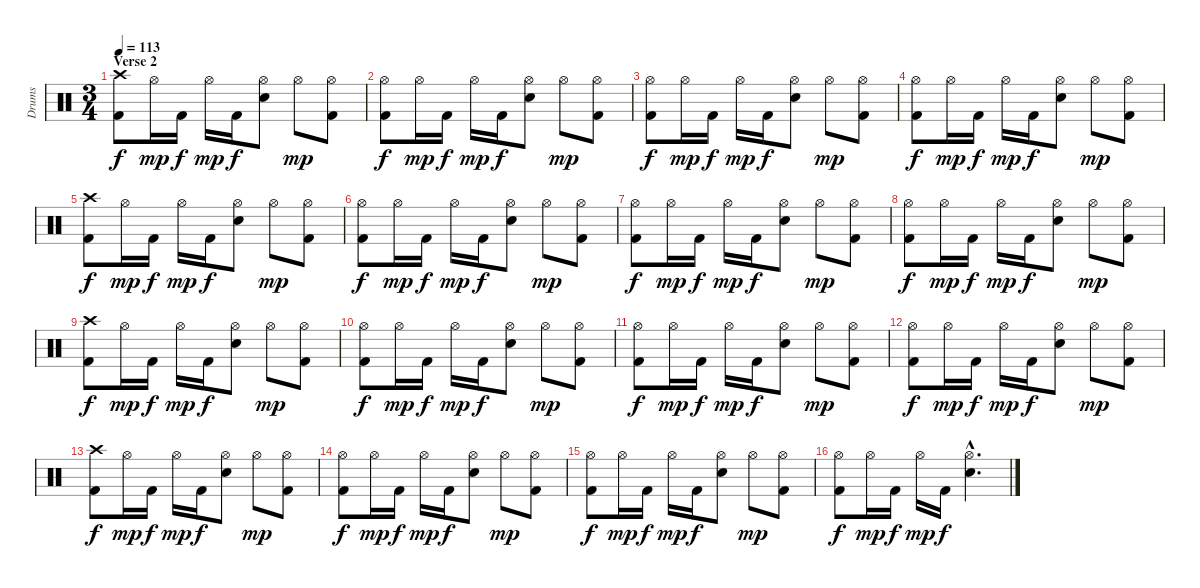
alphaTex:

\track ("Drums" "Drums") {instrument percussion}
\staff {score}
\articulation defaults
\ts (3 4)
\section ("" "Verse 2")
\tempo 113
\clef neutral
\ks c
("Crash high (hit)" "Kick (hit) 2").8{dy f} "Hi-Hat (open)".16{dy mp} "Kick (hit) 2".16{dy f} "Hi-Hat (open)".16{dy mp} "Kick (hit) 2".16{dy f} ("Hi-Hat (open)" "Snare (hit) 2").8 "Hi-Hat (open)".8{dy mp} ("Hi-Hat (open)" "Kick (hit) 2").8 |
("Hi-Hat (open)" "Kick (hit) 2").8{dy f} "Hi-Hat (open)".16{dy mp} "Kick (hit) 2".16{dy f} "Hi-Hat (open)".16{dy mp} "Kick (hit) 2".16{dy f} ("Hi-Hat (open)" "Snare (hit) 2").8 "Hi-Hat (open)".8{dy mp} ("Hi-Hat (open)" "Kick (hit) 2").8 |
("Hi-Hat (open)" "Kick (hit) 2").8{dy f} "Hi-Hat (open)".16{dy mp} "Kick (hit) 2".16{dy f} "Hi-Hat (open)".16{dy mp} "Kick (hit) 2".16{dy f} ("Hi-Hat (open)" "Snare (hit) 2").8 "Hi-Hat (open)".8{dy mp} ("Hi-Hat (open)" "Kick (hit) 2").8 |
("Hi-Hat (open)" "Kick (hit) 2").8{dy f} "Hi-Hat (open)".16{dy mp} "Kick (hit) 2".16{dy f} "Hi-Hat (open)".16{dy mp} "Kick (hit) 2".16{dy f} ("Hi-Hat (open)" "Snare (hit) 2").8 "Hi-Hat (open)".8{dy mp} ("Hi-Hat (open)" "Kick (hit) 2").8 |
("Crash high (hit)" "Kick (hit) 2").8{dy f} "Hi-Hat (open)".16{dy mp} "Kick (hit) 2".16{dy f} "Hi-Hat (open)".16{dy mp} "Kick (hit) 2".16{dy f} ("Hi-Hat (open)" "Snare (hit) 2").8 "Hi-Hat (open)".8{dy mp} ("Hi-Hat (open)" "Kick (hit) 2").8 |
("Hi-Hat (open)" "Kick (hit) 2").8{dy f} "Hi-Hat (open)".16{dy mp} "Kick (hit) 2".16{dy f} "Hi-Hat (open)".16{dy mp} "Kick (hit) 2".16{dy f} ("Hi-Hat (open)" "Snare (hit) 2").8 "Hi-Hat (open)".8{dy mp} ("Hi-Hat (open)" "Kick (hit) 2").8 |
("Hi-Hat (open)" "Kick (hit) 2").8{dy f} "Hi-Hat (open)".16{dy mp} "Kick (hit) 2".16{dy f} "Hi-Hat (open)".16{dy mp} "Kick (hit) 2".16{dy f} ("Hi-Hat (open)" "Snare (hit) 2").8 "Hi-Hat (open)".8{dy mp} ("Hi-Hat (open)" "Kick (hit) 2").8 |
("Hi-Hat (open)" "Kick (hit) 2").8{dy f} "Hi-Hat (open)".16{dy mp} "Kick (hit) 2".16{dy f} "Hi-Hat (open)".16{dy mp} "Kick (hit) 2".16{dy f} ("Hi-Hat (open)" "Snare (hit) 2").8 "Hi-Hat (open)".8{dy mp} ("Hi-Hat (open)" "Kick (hit) 2").8 |
("Crash high (hit)" "Kick (hit) 2").8{dy f} "Hi-Hat (open)".16{dy mp} "Kick (hit) 2".16{dy f} "Hi-Hat (open)".16{dy mp} "Kick (hit) 2".16{dy f} ("Hi-Hat (open)" "Snare (hit) 2").8 "Hi-Hat (open)".8{dy mp} ("Hi-Hat (open)" "Kick (hit) 2").8 |
("Hi-Hat (open)" "Kick (hit) 2").8{dy f} "Hi-Hat (open)".16{dy mp} "Kick (hit) 2".16{dy f} "Hi-Hat (open)".16{dy mp} "Kick (hit) 2".16{dy f} ("Hi-Hat (open)" "Snare (hit) 2").8 "Hi-Hat (open)".8{dy mp} ("Hi-Hat (open)" "Kick (hit) 2").8 |
("Hi-Hat (open)" "Kick (hit) 2").8{dy f} "Hi-Hat (open)".16{dy mp} "Kick (hit) 2".16{dy f} "Hi-Hat (open)".16{dy mp} "Kick (hit) 2".16{dy f} ("Hi-Hat (open)" "Snare (hit) 2").8 "Hi-Hat (open)".8{dy mp} ("Hi-Hat (open)" "Kick (hit) 2").8 |
("Hi-Hat (open)" "Kick (hit) 2").8{dy f} "Hi-Hat (open)".16{dy mp} "Kick (hit) 2".16{dy f} "Hi-Hat (open)".16{dy mp} "Kick (hit) 2".16{dy f} ("Hi-Hat (open)" "Snare (hit) 2").8 "Hi-Hat (open)".8{dy mp} ("Hi-Hat (open)" "Kick (hit) 2").8 |
("Crash high (hit)" "Kick (hit) 2").8{dy f} "Hi-Hat (open)".16{dy mp} "Kick (hit) 2".16{dy f} "Hi-Hat (open)".16{dy mp} "Kick (hit) 2".16{dy f} ("Hi-Hat (open)" "Snare (hit) 2").8 "Hi-Hat (open)".8{dy mp} ("Hi-Hat (open)" "Kick (hit) 2").8 |
("Hi-Hat (open)" "Kick (hit) 2").8{dy f} "Hi-Hat (open)".16{dy mp} "Kick (hit) 2".16{dy f} "Hi-Hat (open)".16{dy mp} "Kick (hit) 2".16{dy f} ("Hi-Hat (open)" "Snare (hit) 2").8 "Hi-Hat (open)".8{dy mp} ("Hi-Hat (open)" "Kick (hit) 2").8 |
("Hi-Hat (open)" "Kick (hit) 2").8{dy f} "Hi-Hat (open)".16{dy mp} "Kick (hit) 2".16{dy f} "Hi-Hat (open)".16{dy mp} "Kick (hit) 2".16{dy f} ("Hi-Hat (open)" "Snare (hit) 2").8 "Hi-Hat (open)".8{dy mp} ("Hi-Hat (open)" "Kick (hit) 2").8 |
("Hi-Hat (open)" "Kick (hit) 2").8{dy f} "Hi-Hat (open)".16{dy mp} "Kick (hit) 2".16{dy f} "Hi-Hat (open)".16{dy mp} "Kick (hit) 2".16{dy f} ("Hi-Hat (open)"{hac} "Snare (hit) 2"{hac}).4{d}
